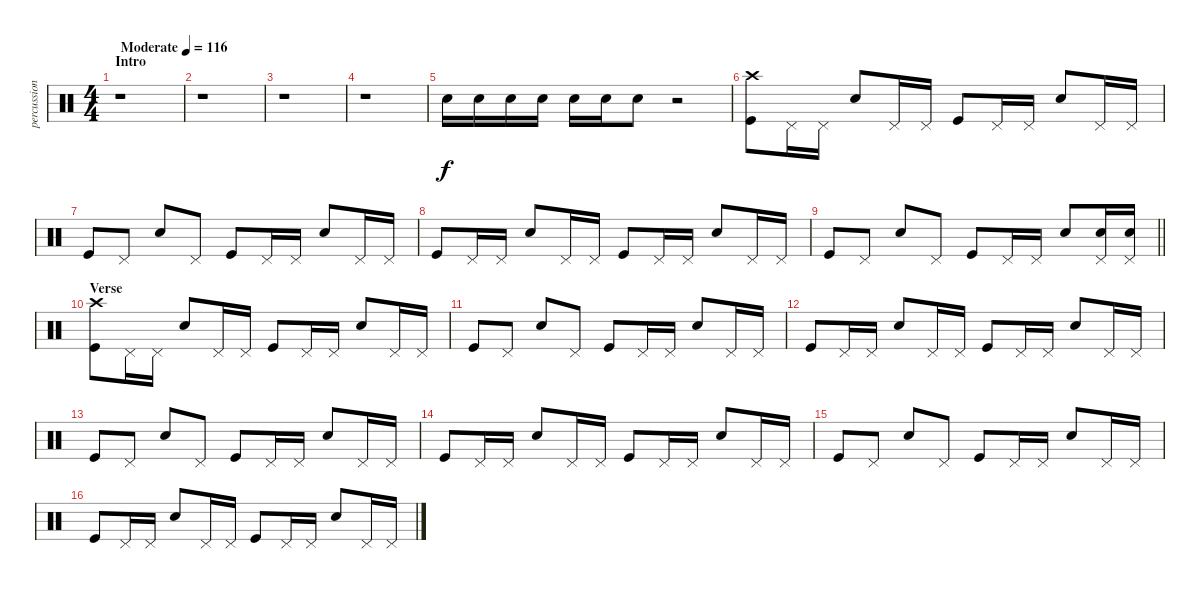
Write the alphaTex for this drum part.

\track ("percussion" "percussion") {instrument percussion}
\staff {score}
\articulation defaults
\ts (4 4)
\section ("" "Intro")
\tempo (116 "Moderate")
\clef neutral
\ks c
r.1{dy f} |
r.1 |
r.1 |
r.1 |
"Hand Clap (hit)".16 "Hand Clap (hit)".16 "Hand Clap (hit)".16 "Hand Clap (hit)".16 "Hand Clap (hit)".16 "Hand Clap (hit)".16 "Hand Clap (hit)".8 r.2 |
("Crash high (hit)" "Kick (hit)").8 "Pedal Hi-Hat (hit)".16 "Pedal Hi-Hat (hit)".16 "Electric Snare (hit)".8 "Pedal Hi-Hat (hit)".16 "Pedal Hi-Hat (hit)".16 "Kick (hit)".8 "Pedal Hi-Hat (hit)".16 "Pedal Hi-Hat (hit)".16 "Electric Snare (hit)".8 "Pedal Hi-Hat (hit)".16 "Pedal Hi-Hat (hit)".16 |
"Kick (hit)".8 "Pedal Hi-Hat (hit)".8 "Electric Snare (hit)".8 "Pedal Hi-Hat (hit)".8 "Kick (hit)".8 "Pedal Hi-Hat (hit)".16 "Pedal Hi-Hat (hit)".16 "Electric Snare (hit)".8 "Pedal Hi-Hat (hit)".16 "Pedal Hi-Hat (hit)".16 |
"Kick (hit)".8 "Pedal Hi-Hat (hit)".16 "Pedal Hi-Hat (hit)".16 "Electric Snare (hit)".8 "Pedal Hi-Hat (hit)".16 "Pedal Hi-Hat (hit)".16 "Kick (hit)".8 "Pedal Hi-Hat (hit)".16 "Pedal Hi-Hat (hit)".16 "Electric Snare (hit)".8 "Pedal Hi-Hat (hit)".16 "Pedal Hi-Hat (hit)".16 |
\barLineRight lightlight "Kick (hit)".8 "Pedal Hi-Hat (hit)".8 "Electric Snare (hit)".8 "Pedal Hi-Hat (hit)".8 "Kick (hit)".8 "Pedal Hi-Hat (hit)".16 "Pedal Hi-Hat (hit)".16 "Electric Snare (hit)".8
("Electric Snare (hit)" "Pedal Hi-Hat (hit)").16 ("Electric Snare (hit)" "Pedal Hi-Hat (hit)").16 |
\section ("" "Verse")
("Crash high (hit)" "Kick (hit)").8 "Pedal Hi-Hat (hit)".16 "Pedal Hi-Hat (hit)".16 "Electric Snare (hit)".8 "Pedal Hi-Hat (hit)".16 "Pedal Hi-Hat (hit)".16 "Kick (hit)".8 "Pedal Hi-Hat (hit)".16 "Pedal Hi-Hat (hit)".16 "Electric Snare (hit)".8 "Pedal Hi-Hat (hit)".16 "Pedal Hi-Hat (hit)".16 |
"Kick (hit)".8 "Pedal Hi-Hat (hit)".8 "Electric Snare (hit)".8 "Pedal Hi-Hat (hit)".8 "Kick (hit)".8 "Pedal Hi-Hat (hit)".16 "Pedal Hi-Hat (hit)".16 "Electric Snare (hit)".8 "Pedal Hi-Hat (hit)".16 "Pedal Hi-Hat (hit)".16 |
"Kick (hit)".8 "Pedal Hi-Hat (hit)".16 "Pedal Hi-Hat (hit)".16 "Electric Snare (hit)".8 "Pedal Hi-Hat (hit)".16 "Pedal Hi-Hat (hit)".16 "Kick (hit)".8 "Pedal Hi-Hat (hit)".16 "Pedal Hi-Hat (hit)".16 "Electric Snare (hit)".8 "Pedal Hi-Hat (hit)".16 "Pedal Hi-Hat (hit)".16 |
"Kick (hit)".8 "Pedal Hi-Hat (hit)".8 "Electric Snare (hit)".8 "Pedal Hi-Hat (hit)".8 "Kick (hit)".8 "Pedal Hi-Hat (hit)".16 "Pedal Hi-Hat (hit)".16 "Electric Snare (hit)".8 "Pedal Hi-Hat (hit)".16 "Pedal Hi-Hat (hit)".16 |
"Kick (hit)".8 "Pedal Hi-Hat (hit)".16 "Pedal Hi-Hat (hit)".16 "Electric Snare (hit)".8 "Pedal Hi-Hat (hit)".16 "Pedal Hi-Hat (hit)".16 "Kick (hit)".8 "Pedal Hi-Hat (hit)".16 "Pedal Hi-Hat (hit)".16 "Electric Snare (hit)".8 "Pedal Hi-Hat (hit)".16 "Pedal Hi-Hat (hit)".16 |
"Kick (hit)".8 "Pedal Hi-Hat (hit)".8 "Electric Snare (hit)".8 "Pedal Hi-Hat (hit)".8 "Kick (hit)".8 "Pedal Hi-Hat (hit)".16 "Pedal Hi-Hat (hit)".16 "Electric Snare (hit)".8 "Pedal Hi-Hat (hit)".16 "Pedal Hi-Hat (hit)".16 |
"Kick (hit)".8 "Pedal Hi-Hat (hit)".16 "Pedal Hi-Hat (hit)".16 "Electric Snare (hit)".8 "Pedal Hi-Hat (hit)".16 "Pedal Hi-Hat (hit)".16 "Kick (hit)".8 "Pedal Hi-Hat (hit)".16 "Pedal Hi-Hat (hit)".16 "Electric Snare (hit)".8 "Pedal Hi-Hat (hit)".16 "Pedal Hi-Hat (hit)".16
